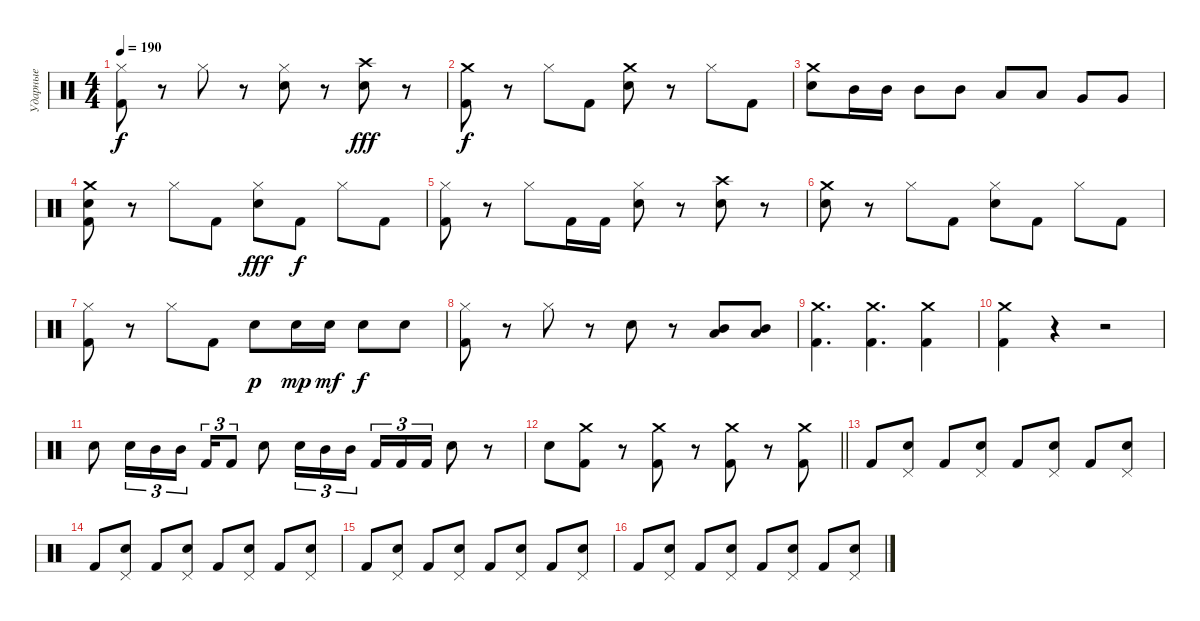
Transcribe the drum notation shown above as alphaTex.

\track ("Ударные" "Ударные") {instrument percussion}
\staff {score}
\articulation defaults
\ts (4 4)
\tempo 190
\clef neutral
\ks c
("Kick (hit) 2" "Hi-Hat (closed)").8{dy f} r.8 "Hi-Hat (closed)".8 r.8 ("Snare (hit) 2" "Hi-Hat (closed)").8 r.8 ("Snare (hit) 2" "Crash high (hit)").8{dy fff} r.8 |
("Kick (hit) 2" "Crash medium (hit)").8{dy f} r.8 "Hi-Hat (closed)".8 "Kick (hit) 2".8 ("Snare (hit) 2" "Crash medium (hit)").8 r.8 "Hi-Hat (closed)".8 "Kick (hit) 2".8 |
("Snare (hit) 2" "Crash medium (hit)").8 "Mid Tom (hit)".16 "Mid Tom (hit)".16 "Mid Tom (hit)".8 "Mid Tom (hit)".8 "Low Tom (hit)".8 "Low Tom (hit)".8 "Very Low Tom (hit)".8 "Very Low Tom (hit)".8 |
("Kick (hit) 2" "Snare (hit) 2" "Crash medium (hit)").8 r.8 "Hi-Hat (closed)".8 "Kick (hit) 2".8 ("Snare (hit) 2" "Hi-Hat (closed)").8{dy fff} "Kick (hit) 2".8{dy f} "Hi-Hat (closed)".8 "Kick (hit) 2".8 |
("Kick (hit) 2" "Hi-Hat (closed)").8 r.8 "Hi-Hat (closed)".8 "Kick (hit) 2".16 "Kick (hit) 2".16 ("Snare (hit) 2" "Hi-Hat (closed)").8 r.8 ("Snare (hit) 2" "Crash high (hit)").8 r.8 |
("Snare (hit) 2" "Crash medium (hit)").8 r.8 "Hi-Hat (closed)".8 "Kick (hit) 2".8 ("Snare (hit) 2" "Hi-Hat (closed)").8 "Kick (hit) 2".8 "Hi-Hat (closed)".8 "Kick (hit) 2".8 |
("Kick (hit) 2" "Hi-Hat (closed)").8 r.8 "Hi-Hat (closed)".8 "Kick (hit) 2".8 "Snare (hit) 2".8{dy p} "Snare (hit) 2".16{dy mp} "Snare (hit) 2".16{dy mf} "Snare (hit) 2".8{dy f} "Snare (hit) 2".8 |
("Kick (hit) 2" "Hi-Hat (closed)").8 r.8 "Hi-Hat (closed)".8 r.8 "Snare (hit) 2".8 r.8 ("Low Tom (hit)" "Mid Tom (hit)").8{bu 120} ("Low Tom (hit)" "Mid Tom (hit)").8{bd 120} |
("Kick (hit) 2" "Crash medium (hit)").4{d} ("Kick (hit) 2" "Crash medium (hit)").4{d} ("Kick (hit) 2" "Crash medium (hit)").4 |
("Kick (hit) 2" "Crash medium (hit)").4 r.4 r.2 |
"Snare (hit) 2".8 "Snare (hit) 2".16{tu (3 2)} "Mid Tom (hit)".16{tu (3 2)} "Mid Tom (hit)".16{tu (3 2)} "Kick (hit) 2".16{tu (3 2)} "Kick (hit) 2".8{tu (3 2)} "Snare (hit) 2".8 "Snare (hit) 2".16{tu (3 2)} "Mid Tom (hit)".16{tu (3 2)} "Mid Tom (hit)".16{tu (3 2) beam splitsecondary} "Kick (hit) 2".16{tu (3 2)} "Kick (hit) 2".16{tu (3 2)} "Kick (hit) 2".16{tu (3 2)} "Snare (hit) 2".8 r.8 |
\barLineRight lightlight "Snare (hit) 2".8
("Kick (hit) 2" "Crash medium (hit)").8 r.8 ("Kick (hit) 2" "Crash medium (hit)").8 r.8 ("Kick (hit) 2" "Crash medium (hit)").8 r.8 ("Kick (hit) 2" "Crash medium (hit)").8 |
"Kick (hit) 2".8 ("Snare (hit) 2" "Pedal Hi-Hat (hit)").8 "Kick (hit) 2".8 ("Snare (hit) 2" "Pedal Hi-Hat (hit)").8 "Kick (hit) 2".8 ("Snare (hit) 2" "Pedal Hi-Hat (hit)").8 "Kick (hit) 2".8 ("Snare (hit) 2" "Pedal Hi-Hat (hit)").8 |
"Kick (hit) 2".8 ("Snare (hit) 2" "Pedal Hi-Hat (hit)").8 "Kick (hit) 2".8 ("Snare (hit) 2" "Pedal Hi-Hat (hit)").8 "Kick (hit) 2".8 ("Snare (hit) 2" "Pedal Hi-Hat (hit)").8 "Kick (hit) 2".8 ("Snare (hit) 2" "Pedal Hi-Hat (hit)").8 |
"Kick (hit) 2".8 ("Snare (hit) 2" "Pedal Hi-Hat (hit)").8 "Kick (hit) 2".8 ("Snare (hit) 2" "Pedal Hi-Hat (hit)").8 "Kick (hit) 2".8 ("Snare (hit) 2" "Pedal Hi-Hat (hit)").8 "Kick (hit) 2".8 ("Snare (hit) 2" "Pedal Hi-Hat (hit)").8 |
"Kick (hit) 2".8 ("Snare (hit) 2" "Pedal Hi-Hat (hit)").8 "Kick (hit) 2".8 ("Snare (hit) 2" "Pedal Hi-Hat (hit)").8 "Kick (hit) 2".8 ("Snare (hit) 2" "Pedal Hi-Hat (hit)").8 "Kick (hit) 2".8 ("Snare (hit) 2" "Pedal Hi-Hat (hit)").8
